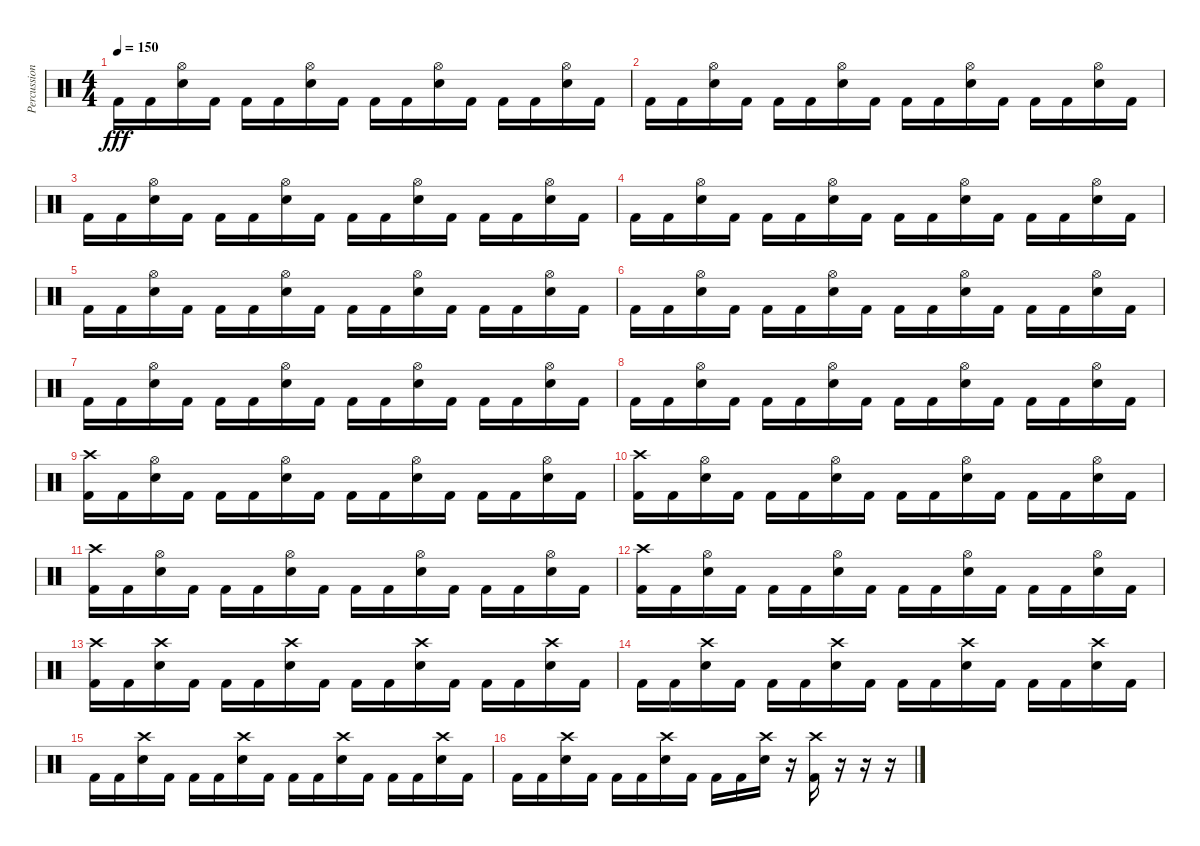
\track ("Percussion" "Percussion") {instrument percussion}
\staff {score}
\articulation defaults
\ts (4 4)
\tempo 150
\clef neutral
\ks c "Kick (hit) 2".16{dy fff} "Kick (hit) 2".16
("Snare (hit) 2" "Hi-Hat (open)").16 "Kick (hit) 2".16 "Kick (hit) 2".16 "Kick (hit) 2".16 ("Snare (hit) 2" "Hi-Hat (open)").16 "Kick (hit) 2".16 "Kick (hit) 2".16 "Kick (hit) 2".16 ("Snare (hit) 2" "Hi-Hat (open)").16 "Kick (hit) 2".16 "Kick (hit) 2".16 "Kick (hit) 2".16 ("Snare (hit) 2" "Hi-Hat (open)").16 "Kick (hit) 2".16 |
"Kick (hit) 2".16 "Kick (hit) 2".16 ("Snare (hit) 2" "Hi-Hat (open)").16 "Kick (hit) 2".16 "Kick (hit) 2".16 "Kick (hit) 2".16 ("Snare (hit) 2" "Hi-Hat (open)").16 "Kick (hit) 2".16 "Kick (hit) 2".16 "Kick (hit) 2".16 ("Snare (hit) 2" "Hi-Hat (open)").16 "Kick (hit) 2".16 "Kick (hit) 2".16 "Kick (hit) 2".16 ("Snare (hit) 2" "Hi-Hat (open)").16 "Kick (hit) 2".16 |
"Kick (hit) 2".16 "Kick (hit) 2".16 ("Snare (hit) 2" "Hi-Hat (open)").16 "Kick (hit) 2".16 "Kick (hit) 2".16 "Kick (hit) 2".16 ("Snare (hit) 2" "Hi-Hat (open)").16 "Kick (hit) 2".16 "Kick (hit) 2".16 "Kick (hit) 2".16 ("Snare (hit) 2" "Hi-Hat (open)").16 "Kick (hit) 2".16 "Kick (hit) 2".16 "Kick (hit) 2".16 ("Snare (hit) 2" "Hi-Hat (open)").16 "Kick (hit) 2".16 |
"Kick (hit) 2".16 "Kick (hit) 2".16 ("Snare (hit) 2" "Hi-Hat (open)").16 "Kick (hit) 2".16 "Kick (hit) 2".16 "Kick (hit) 2".16 ("Snare (hit) 2" "Hi-Hat (open)").16 "Kick (hit) 2".16 "Kick (hit) 2".16 "Kick (hit) 2".16 ("Snare (hit) 2" "Hi-Hat (open)").16 "Kick (hit) 2".16 "Kick (hit) 2".16 "Kick (hit) 2".16 ("Snare (hit) 2" "Hi-Hat (open)").16 "Kick (hit) 2".16 |
"Kick (hit) 2".16 "Kick (hit) 2".16 ("Snare (hit) 2" "Hi-Hat (open)").16 "Kick (hit) 2".16 "Kick (hit) 2".16 "Kick (hit) 2".16 ("Snare (hit) 2" "Hi-Hat (open)").16 "Kick (hit) 2".16 "Kick (hit) 2".16 "Kick (hit) 2".16 ("Snare (hit) 2" "Hi-Hat (open)").16 "Kick (hit) 2".16 "Kick (hit) 2".16 "Kick (hit) 2".16 ("Snare (hit) 2" "Hi-Hat (open)").16 "Kick (hit) 2".16 |
"Kick (hit) 2".16 "Kick (hit) 2".16 ("Snare (hit) 2" "Hi-Hat (open)").16 "Kick (hit) 2".16 "Kick (hit) 2".16 "Kick (hit) 2".16 ("Snare (hit) 2" "Hi-Hat (open)").16 "Kick (hit) 2".16 "Kick (hit) 2".16 "Kick (hit) 2".16 ("Snare (hit) 2" "Hi-Hat (open)").16 "Kick (hit) 2".16 "Kick (hit) 2".16 "Kick (hit) 2".16 ("Snare (hit) 2" "Hi-Hat (open)").16 "Kick (hit) 2".16 |
"Kick (hit) 2".16 "Kick (hit) 2".16 ("Snare (hit) 2" "Hi-Hat (open)").16 "Kick (hit) 2".16 "Kick (hit) 2".16 "Kick (hit) 2".16 ("Snare (hit) 2" "Hi-Hat (open)").16 "Kick (hit) 2".16 "Kick (hit) 2".16 "Kick (hit) 2".16 ("Snare (hit) 2" "Hi-Hat (open)").16 "Kick (hit) 2".16 "Kick (hit) 2".16 "Kick (hit) 2".16 ("Snare (hit) 2" "Hi-Hat (open)").16 "Kick (hit) 2".16 |
"Kick (hit) 2".16 "Kick (hit) 2".16 ("Snare (hit) 2" "Hi-Hat (open)").16 "Kick (hit) 2".16 "Kick (hit) 2".16 "Kick (hit) 2".16 ("Snare (hit) 2" "Hi-Hat (open)").16 "Kick (hit) 2".16 "Kick (hit) 2".16 "Kick (hit) 2".16 ("Snare (hit) 2" "Hi-Hat (open)").16 "Kick (hit) 2".16 "Kick (hit) 2".16 "Kick (hit) 2".16 ("Snare (hit) 2" "Hi-Hat (open)").16 "Kick (hit) 2".16 |
("Kick (hit) 2" "Crash high (hit)").16 "Kick (hit) 2".16 ("Snare (hit) 2" "Hi-Hat (open)").16 "Kick (hit) 2".16 "Kick (hit) 2".16 "Kick (hit) 2".16 ("Snare (hit) 2" "Hi-Hat (open)").16 "Kick (hit) 2".16 "Kick (hit) 2".16 "Kick (hit) 2".16 ("Snare (hit) 2" "Hi-Hat (open)").16 "Kick (hit) 2".16 "Kick (hit) 2".16 "Kick (hit) 2".16 ("Snare (hit) 2" "Hi-Hat (open)").16 "Kick (hit) 2".16 |
("Kick (hit) 2" "Crash high (hit)").16 "Kick (hit) 2".16 ("Snare (hit) 2" "Hi-Hat (open)").16 "Kick (hit) 2".16 "Kick (hit) 2".16 "Kick (hit) 2".16 ("Snare (hit) 2" "Hi-Hat (open)").16 "Kick (hit) 2".16 "Kick (hit) 2".16 "Kick (hit) 2".16 ("Snare (hit) 2" "Hi-Hat (open)").16 "Kick (hit) 2".16 "Kick (hit) 2".16 "Kick (hit) 2".16 ("Snare (hit) 2" "Hi-Hat (open)").16 "Kick (hit) 2".16 |
("Kick (hit) 2" "Crash high (hit)").16 "Kick (hit) 2".16 ("Snare (hit) 2" "Hi-Hat (open)").16 "Kick (hit) 2".16 "Kick (hit) 2".16 "Kick (hit) 2".16 ("Snare (hit) 2" "Hi-Hat (open)").16 "Kick (hit) 2".16 "Kick (hit) 2".16 "Kick (hit) 2".16 ("Snare (hit) 2" "Hi-Hat (open)").16 "Kick (hit) 2".16 "Kick (hit) 2".16 "Kick (hit) 2".16 ("Snare (hit) 2" "Hi-Hat (open)").16 "Kick (hit) 2".16 |
("Kick (hit) 2" "Crash high (hit)").16 "Kick (hit) 2".16 ("Snare (hit) 2" "Hi-Hat (open)").16 "Kick (hit) 2".16 "Kick (hit) 2".16 "Kick (hit) 2".16 ("Snare (hit) 2" "Hi-Hat (open)").16 "Kick (hit) 2".16 "Kick (hit) 2".16 "Kick (hit) 2".16 ("Snare (hit) 2" "Hi-Hat (open)").16 "Kick (hit) 2".16 "Kick (hit) 2".16 "Kick (hit) 2".16 ("Snare (hit) 2" "Hi-Hat (open)").16 "Kick (hit) 2".16 |
("Kick (hit) 2" "Crash high (hit)").16 "Kick (hit) 2".16 ("Snare (hit) 2" "Crash high (hit)").16 "Kick (hit) 2".16 "Kick (hit) 2".16 "Kick (hit) 2".16 ("Snare (hit) 2" "Crash high (hit)").16 "Kick (hit) 2".16 "Kick (hit) 2".16 "Kick (hit) 2".16 ("Snare (hit) 2" "Crash high (hit)").16 "Kick (hit) 2".16 "Kick (hit) 2".16 "Kick (hit) 2".16 ("Snare (hit) 2" "Crash high (hit)").16 "Kick (hit) 2".16 |
"Kick (hit) 2".16 "Kick (hit) 2".16 ("Snare (hit) 2" "Crash high (hit)").16 "Kick (hit) 2".16 "Kick (hit) 2".16 "Kick (hit) 2".16 ("Snare (hit) 2" "Crash high (hit)").16 "Kick (hit) 2".16 "Kick (hit) 2".16 "Kick (hit) 2".16 ("Snare (hit) 2" "Crash high (hit)").16 "Kick (hit) 2".16 "Kick (hit) 2".16 "Kick (hit) 2".16 ("Snare (hit) 2" "Crash high (hit)").16 "Kick (hit) 2".16 |
"Kick (hit) 2".16 "Kick (hit) 2".16 ("Snare (hit) 2" "Crash high (hit)").16 "Kick (hit) 2".16 "Kick (hit) 2".16 "Kick (hit) 2".16 ("Snare (hit) 2" "Crash high (hit)").16 "Kick (hit) 2".16 "Kick (hit) 2".16 "Kick (hit) 2".16 ("Snare (hit) 2" "Crash high (hit)").16 "Kick (hit) 2".16 "Kick (hit) 2".16 "Kick (hit) 2".16 ("Snare (hit) 2" "Crash high (hit)").16 "Kick (hit) 2".16 |
"Kick (hit) 2".16 "Kick (hit) 2".16 ("Snare (hit) 2" "Crash high (hit)").16 "Kick (hit) 2".16 "Kick (hit) 2".16 "Kick (hit) 2".16 ("Snare (hit) 2" "Crash high (hit)").16 "Kick (hit) 2".16 "Kick (hit) 2".16 "Kick (hit) 2".16 ("Snare (hit) 2" "Crash high (hit)").16 r.16 ("Kick (hit) 2" "Crash high (hit)").16 r.16 r.16 r.16
